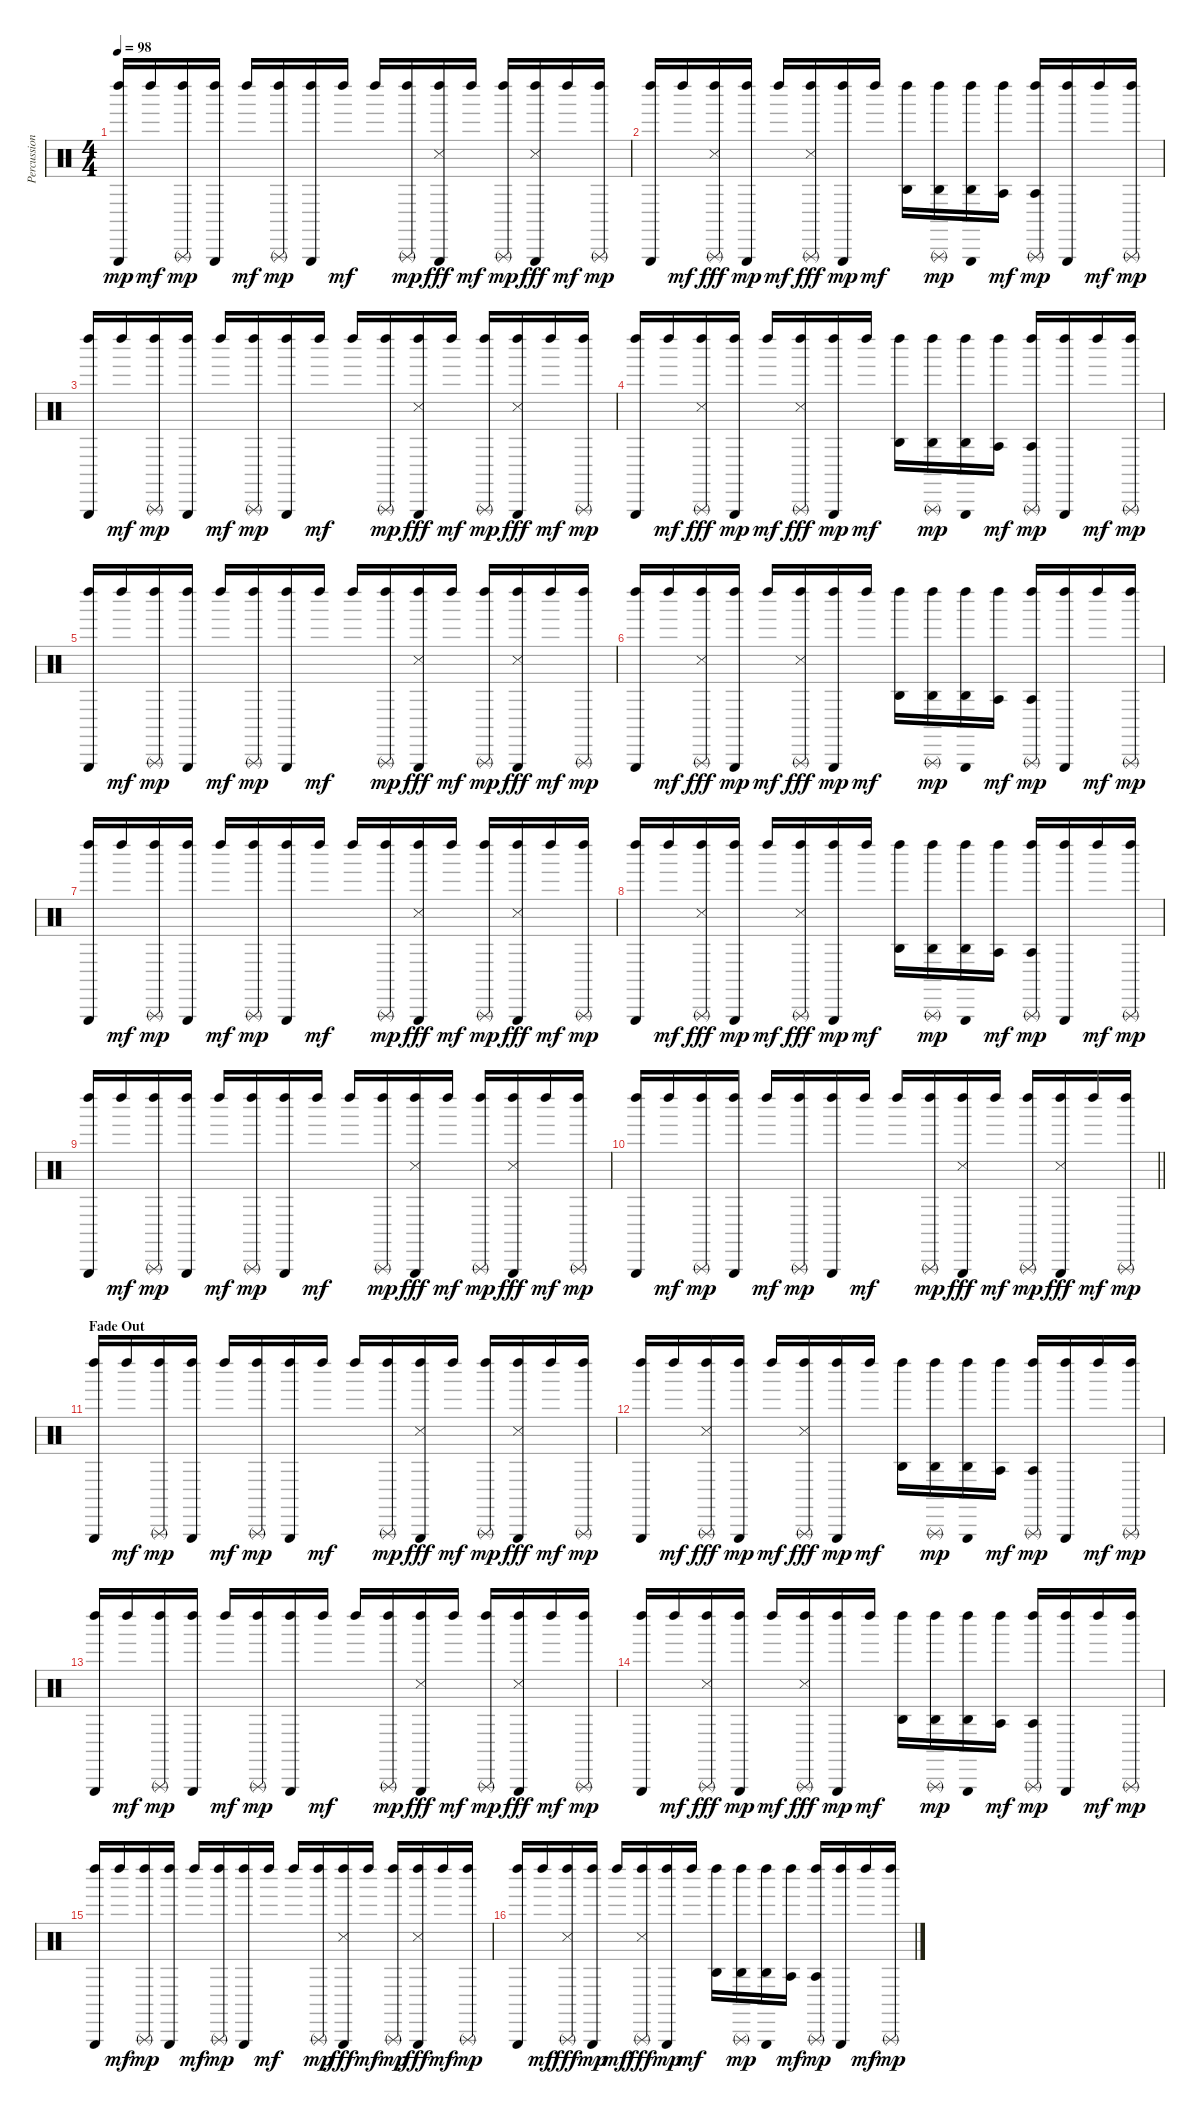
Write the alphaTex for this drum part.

\track ("Percussions (Dr-0)" "Percussion") {instrument percussion}
\staff {score}
\articulation defaults
\ts (4 4)
\tempo 98
\clef neutral
\ks c
("Left Maraca (hit)" "Triangle (hit)").16{dy mp} "Left Maraca (hit)".16{dy mf} ("Left Maraca (hit)" "Triangle (rnute)").16{dy mp} ("Left Maraca (hit)" "Triangle (hit)").16 "Left Maraca (hit)".16{dy mf} ("Left Maraca (hit)" "Triangle (rnute)").16{dy mp} ("Left Maraca (hit)" "Triangle (hit)").16 "Left Maraca (hit)".16{dy mf} "Left Maraca (hit)".16 ("Left Maraca (hit)" "Triangle (rnute)").16{dy mp} ("Left Maraca (hit)" "Triangle (hit)" "Snare (side stick) 3").16{dy fff} "Left Maraca (hit)".16{dy mf} ("Left Maraca (hit)" "Triangle (rnute)").16{dy mp} ("Left Maraca (hit)" "Triangle (hit)" "Snare (side stick) 3").16{dy fff} "Left Maraca (hit)".16{dy mf} ("Left Maraca (hit)" "Triangle (rnute)").16{dy mp} |
("Left Maraca (hit)" "Triangle (hit)").16 "Left Maraca (hit)".16{dy mf} ("Left Maraca (hit)" "Triangle (rnute)" "Snare (side stick) 3").16{dy fff} ("Left Maraca (hit)" "Triangle (hit)").16{dy mp} "Left Maraca (hit)".16{dy mf} ("Left Maraca (hit)" "Triangle (rnute)" "Snare (side stick) 3").16{dy fff} ("Left Maraca (hit)" "Triangle (hit)").16{dy mp} "Left Maraca (hit)".16{dy mf} ("Left Maraca (hit)" "Agogo high (hit)").16 ("Left Maraca (hit)" "Triangle (rnute)" "Agogo high (hit)").16{dy mp} ("Left Maraca (hit)" "Triangle (hit)" "Agogo high (hit)").16 ("Left Maraca (hit)" "Agogo tow (hit)").16{dy mf} ("Left Maraca (hit)" "Triangle (rnute)" "Agogo tow (hit)").16{dy mp} ("Left Maraca (hit)" "Triangle (hit)").16 "Left Maraca (hit)".16{dy mf} ("Left Maraca (hit)" "Triangle (rnute)").16{dy mp} |
("Left Maraca (hit)" "Triangle (hit)").16 "Left Maraca (hit)".16{dy mf} ("Left Maraca (hit)" "Triangle (rnute)").16{dy mp} ("Left Maraca (hit)" "Triangle (hit)").16 "Left Maraca (hit)".16{dy mf} ("Left Maraca (hit)" "Triangle (rnute)").16{dy mp} ("Left Maraca (hit)" "Triangle (hit)").16 "Left Maraca (hit)".16{dy mf} "Left Maraca (hit)".16 ("Left Maraca (hit)" "Triangle (rnute)").16{dy mp} ("Left Maraca (hit)" "Triangle (hit)" "Snare (side stick) 3").16{dy fff} "Left Maraca (hit)".16{dy mf} ("Left Maraca (hit)" "Triangle (rnute)").16{dy mp} ("Left Maraca (hit)" "Triangle (hit)" "Snare (side stick) 3").16{dy fff} "Left Maraca (hit)".16{dy mf} ("Left Maraca (hit)" "Triangle (rnute)").16{dy mp} |
("Left Maraca (hit)" "Triangle (hit)").16 "Left Maraca (hit)".16{dy mf} ("Left Maraca (hit)" "Triangle (rnute)" "Snare (side stick) 3").16{dy fff} ("Left Maraca (hit)" "Triangle (hit)").16{dy mp} "Left Maraca (hit)".16{dy mf} ("Left Maraca (hit)" "Triangle (rnute)" "Snare (side stick) 3").16{dy fff} ("Left Maraca (hit)" "Triangle (hit)").16{dy mp} "Left Maraca (hit)".16{dy mf} ("Left Maraca (hit)" "Agogo high (hit)").16 ("Left Maraca (hit)" "Triangle (rnute)" "Agogo high (hit)").16{dy mp} ("Left Maraca (hit)" "Triangle (hit)" "Agogo high (hit)").16 ("Left Maraca (hit)" "Agogo tow (hit)").16{dy mf} ("Left Maraca (hit)" "Triangle (rnute)" "Agogo tow (hit)").16{dy mp} ("Left Maraca (hit)" "Triangle (hit)").16 "Left Maraca (hit)".16{dy mf} ("Left Maraca (hit)" "Triangle (rnute)").16{dy mp} |
("Left Maraca (hit)" "Triangle (hit)").16 "Left Maraca (hit)".16{dy mf} ("Left Maraca (hit)" "Triangle (rnute)").16{dy mp} ("Left Maraca (hit)" "Triangle (hit)").16 "Left Maraca (hit)".16{dy mf} ("Left Maraca (hit)" "Triangle (rnute)").16{dy mp} ("Left Maraca (hit)" "Triangle (hit)").16 "Left Maraca (hit)".16{dy mf} "Left Maraca (hit)".16 ("Left Maraca (hit)" "Triangle (rnute)").16{dy mp} ("Left Maraca (hit)" "Triangle (hit)" "Snare (side stick) 3").16{dy fff} "Left Maraca (hit)".16{dy mf} ("Left Maraca (hit)" "Triangle (rnute)").16{dy mp} ("Left Maraca (hit)" "Triangle (hit)" "Snare (side stick) 3").16{dy fff} "Left Maraca (hit)".16{dy mf} ("Left Maraca (hit)" "Triangle (rnute)").16{dy mp} |
("Left Maraca (hit)" "Triangle (hit)").16 "Left Maraca (hit)".16{dy mf} ("Left Maraca (hit)" "Triangle (rnute)" "Snare (side stick) 3").16{dy fff} ("Left Maraca (hit)" "Triangle (hit)").16{dy mp} "Left Maraca (hit)".16{dy mf} ("Left Maraca (hit)" "Triangle (rnute)" "Snare (side stick) 3").16{dy fff} ("Left Maraca (hit)" "Triangle (hit)").16{dy mp} "Left Maraca (hit)".16{dy mf} ("Left Maraca (hit)" "Agogo high (hit)").16 ("Left Maraca (hit)" "Triangle (rnute)" "Agogo high (hit)").16{dy mp} ("Left Maraca (hit)" "Triangle (hit)" "Agogo high (hit)").16 ("Left Maraca (hit)" "Agogo tow (hit)").16{dy mf} ("Left Maraca (hit)" "Triangle (rnute)" "Agogo tow (hit)").16{dy mp} ("Left Maraca (hit)" "Triangle (hit)").16 "Left Maraca (hit)".16{dy mf} ("Left Maraca (hit)" "Triangle (rnute)").16{dy mp} |
("Left Maraca (hit)" "Triangle (hit)").16 "Left Maraca (hit)".16{dy mf} ("Left Maraca (hit)" "Triangle (rnute)").16{dy mp} ("Left Maraca (hit)" "Triangle (hit)").16 "Left Maraca (hit)".16{dy mf} ("Left Maraca (hit)" "Triangle (rnute)").16{dy mp} ("Left Maraca (hit)" "Triangle (hit)").16 "Left Maraca (hit)".16{dy mf} "Left Maraca (hit)".16 ("Left Maraca (hit)" "Triangle (rnute)").16{dy mp} ("Left Maraca (hit)" "Triangle (hit)" "Snare (side stick) 3").16{dy fff} "Left Maraca (hit)".16{dy mf} ("Left Maraca (hit)" "Triangle (rnute)").16{dy mp} ("Left Maraca (hit)" "Triangle (hit)" "Snare (side stick) 3").16{dy fff} "Left Maraca (hit)".16{dy mf} ("Left Maraca (hit)" "Triangle (rnute)").16{dy mp} |
("Left Maraca (hit)" "Triangle (hit)").16 "Left Maraca (hit)".16{dy mf} ("Left Maraca (hit)" "Triangle (rnute)" "Snare (side stick) 3").16{dy fff} ("Left Maraca (hit)" "Triangle (hit)").16{dy mp} "Left Maraca (hit)".16{dy mf} ("Left Maraca (hit)" "Triangle (rnute)" "Snare (side stick) 3").16{dy fff} ("Left Maraca (hit)" "Triangle (hit)").16{dy mp} "Left Maraca (hit)".16{dy mf} ("Left Maraca (hit)" "Agogo high (hit)").16 ("Left Maraca (hit)" "Triangle (rnute)" "Agogo high (hit)").16{dy mp} ("Left Maraca (hit)" "Triangle (hit)" "Agogo high (hit)").16 ("Left Maraca (hit)" "Agogo tow (hit)").16{dy mf} ("Left Maraca (hit)" "Triangle (rnute)" "Agogo tow (hit)").16{dy mp} ("Left Maraca (hit)" "Triangle (hit)").16 "Left Maraca (hit)".16{dy mf} ("Left Maraca (hit)" "Triangle (rnute)").16{dy mp} |
("Left Maraca (hit)" "Triangle (hit)").16 "Left Maraca (hit)".16{dy mf} ("Left Maraca (hit)" "Triangle (rnute)").16{dy mp} ("Left Maraca (hit)" "Triangle (hit)").16 "Left Maraca (hit)".16{dy mf} ("Left Maraca (hit)" "Triangle (rnute)").16{dy mp} ("Left Maraca (hit)" "Triangle (hit)").16 "Left Maraca (hit)".16{dy mf} "Left Maraca (hit)".16 ("Left Maraca (hit)" "Triangle (rnute)").16{dy mp} ("Left Maraca (hit)" "Triangle (hit)" "Snare (side stick) 3").16{dy fff} "Left Maraca (hit)".16{dy mf} ("Left Maraca (hit)" "Triangle (rnute)").16{dy mp} ("Left Maraca (hit)" "Triangle (hit)" "Snare (side stick) 3").16{dy fff} "Left Maraca (hit)".16{dy mf} ("Left Maraca (hit)" "Triangle (rnute)").16{dy mp} |
\barLineRight lightlight
("Left Maraca (hit)" "Triangle (hit)").16 "Left Maraca (hit)".16{dy mf} ("Left Maraca (hit)" "Triangle (rnute)").16{dy mp} ("Left Maraca (hit)" "Triangle (hit)").16 "Left Maraca (hit)".16{dy mf} ("Left Maraca (hit)" "Triangle (rnute)").16{dy mp} ("Left Maraca (hit)" "Triangle (hit)").16 "Left Maraca (hit)".16{dy mf} "Left Maraca (hit)".16 ("Left Maraca (hit)" "Triangle (rnute)").16{dy mp} ("Left Maraca (hit)" "Triangle (hit)" "Snare (side stick) 3").16{dy fff} "Left Maraca (hit)".16{dy mf} ("Left Maraca (hit)" "Triangle (rnute)").16{dy mp} ("Left Maraca (hit)" "Triangle (hit)" "Snare (side stick) 3").16{dy fff} "Left Maraca (hit)".16{dy mf} ("Left Maraca (hit)" "Triangle (rnute)").16{dy mp} |
\section ("" "Fade Out")
("Left Maraca (hit)" "Triangle (hit)").16 "Left Maraca (hit)".16{dy mf} ("Left Maraca (hit)" "Triangle (rnute)").16{dy mp} ("Left Maraca (hit)" "Triangle (hit)").16 "Left Maraca (hit)".16{dy mf} ("Left Maraca (hit)" "Triangle (rnute)").16{dy mp} ("Left Maraca (hit)" "Triangle (hit)").16 "Left Maraca (hit)".16{dy mf} "Left Maraca (hit)".16 ("Left Maraca (hit)" "Triangle (rnute)").16{dy mp} ("Left Maraca (hit)" "Triangle (hit)" "Snare (side stick) 3").16{dy fff} "Left Maraca (hit)".16{dy mf} ("Left Maraca (hit)" "Triangle (rnute)").16{dy mp} ("Left Maraca (hit)" "Triangle (hit)" "Snare (side stick) 3").16{dy fff} "Left Maraca (hit)".16{dy mf} ("Left Maraca (hit)" "Triangle (rnute)").16{dy mp} |
("Left Maraca (hit)" "Triangle (hit)").16 "Left Maraca (hit)".16{dy mf} ("Left Maraca (hit)" "Triangle (rnute)" "Snare (side stick) 3").16{dy fff} ("Left Maraca (hit)" "Triangle (hit)").16{dy mp} "Left Maraca (hit)".16{dy mf} ("Left Maraca (hit)" "Triangle (rnute)" "Snare (side stick) 3").16{dy fff} ("Left Maraca (hit)" "Triangle (hit)").16{dy mp} "Left Maraca (hit)".16{dy mf} ("Left Maraca (hit)" "Agogo high (hit)").16 ("Left Maraca (hit)" "Triangle (rnute)" "Agogo high (hit)").16{dy mp} ("Left Maraca (hit)" "Triangle (hit)" "Agogo high (hit)").16 ("Left Maraca (hit)" "Agogo tow (hit)").16{dy mf} ("Left Maraca (hit)" "Triangle (rnute)" "Agogo tow (hit)").16{dy mp} ("Left Maraca (hit)" "Triangle (hit)").16 "Left Maraca (hit)".16{dy mf} ("Left Maraca (hit)" "Triangle (rnute)").16{dy mp} |
("Left Maraca (hit)" "Triangle (hit)").16 "Left Maraca (hit)".16{dy mf} ("Left Maraca (hit)" "Triangle (rnute)").16{dy mp} ("Left Maraca (hit)" "Triangle (hit)").16 "Left Maraca (hit)".16{dy mf} ("Left Maraca (hit)" "Triangle (rnute)").16{dy mp} ("Left Maraca (hit)" "Triangle (hit)").16 "Left Maraca (hit)".16{dy mf} "Left Maraca (hit)".16 ("Left Maraca (hit)" "Triangle (rnute)").16{dy mp} ("Left Maraca (hit)" "Triangle (hit)" "Snare (side stick) 3").16{dy fff} "Left Maraca (hit)".16{dy mf} ("Left Maraca (hit)" "Triangle (rnute)").16{dy mp} ("Left Maraca (hit)" "Triangle (hit)" "Snare (side stick) 3").16{dy fff} "Left Maraca (hit)".16{dy mf} ("Left Maraca (hit)" "Triangle (rnute)").16{dy mp} |
("Left Maraca (hit)" "Triangle (hit)").16 "Left Maraca (hit)".16{dy mf} ("Left Maraca (hit)" "Triangle (rnute)" "Snare (side stick) 3").16{dy fff} ("Left Maraca (hit)" "Triangle (hit)").16{dy mp} "Left Maraca (hit)".16{dy mf} ("Left Maraca (hit)" "Triangle (rnute)" "Snare (side stick) 3").16{dy fff} ("Left Maraca (hit)" "Triangle (hit)").16{dy mp} "Left Maraca (hit)".16{dy mf} ("Left Maraca (hit)" "Agogo high (hit)").16 ("Left Maraca (hit)" "Triangle (rnute)" "Agogo high (hit)").16{dy mp} ("Left Maraca (hit)" "Triangle (hit)" "Agogo high (hit)").16 ("Left Maraca (hit)" "Agogo tow (hit)").16{dy mf} ("Left Maraca (hit)" "Triangle (rnute)" "Agogo tow (hit)").16{dy mp} ("Left Maraca (hit)" "Triangle (hit)").16 "Left Maraca (hit)".16{dy mf} ("Left Maraca (hit)" "Triangle (rnute)").16{dy mp} |
("Left Maraca (hit)" "Triangle (hit)").16 "Left Maraca (hit)".16{dy mf} ("Left Maraca (hit)" "Triangle (rnute)").16{dy mp} ("Left Maraca (hit)" "Triangle (hit)").16 "Left Maraca (hit)".16{dy mf} ("Left Maraca (hit)" "Triangle (rnute)").16{dy mp} ("Left Maraca (hit)" "Triangle (hit)").16 "Left Maraca (hit)".16{dy mf} "Left Maraca (hit)".16 ("Left Maraca (hit)" "Triangle (rnute)").16{dy mp} ("Left Maraca (hit)" "Triangle (hit)" "Snare (side stick) 3").16{dy fff} "Left Maraca (hit)".16{dy mf} ("Left Maraca (hit)" "Triangle (rnute)").16{dy mp} ("Left Maraca (hit)" "Triangle (hit)" "Snare (side stick) 3").16{dy fff} "Left Maraca (hit)".16{dy mf} ("Left Maraca (hit)" "Triangle (rnute)").16{dy mp} |
("Left Maraca (hit)" "Triangle (hit)").16 "Left Maraca (hit)".16{dy mf} ("Left Maraca (hit)" "Triangle (rnute)" "Snare (side stick) 3").16{dy fff} ("Left Maraca (hit)" "Triangle (hit)").16{dy mp} "Left Maraca (hit)".16{dy mf} ("Left Maraca (hit)" "Triangle (rnute)" "Snare (side stick) 3").16{dy fff} ("Left Maraca (hit)" "Triangle (hit)").16{dy mp} "Left Maraca (hit)".16{dy mf} ("Left Maraca (hit)" "Agogo high (hit)").16 ("Left Maraca (hit)" "Triangle (rnute)" "Agogo high (hit)").16{dy mp} ("Left Maraca (hit)" "Triangle (hit)" "Agogo high (hit)").16 ("Left Maraca (hit)" "Agogo tow (hit)").16{dy mf} ("Left Maraca (hit)" "Triangle (rnute)" "Agogo tow (hit)").16{dy mp} ("Left Maraca (hit)" "Triangle (hit)").16 "Left Maraca (hit)".16{dy mf} ("Left Maraca (hit)" "Triangle (rnute)").16{dy mp}
